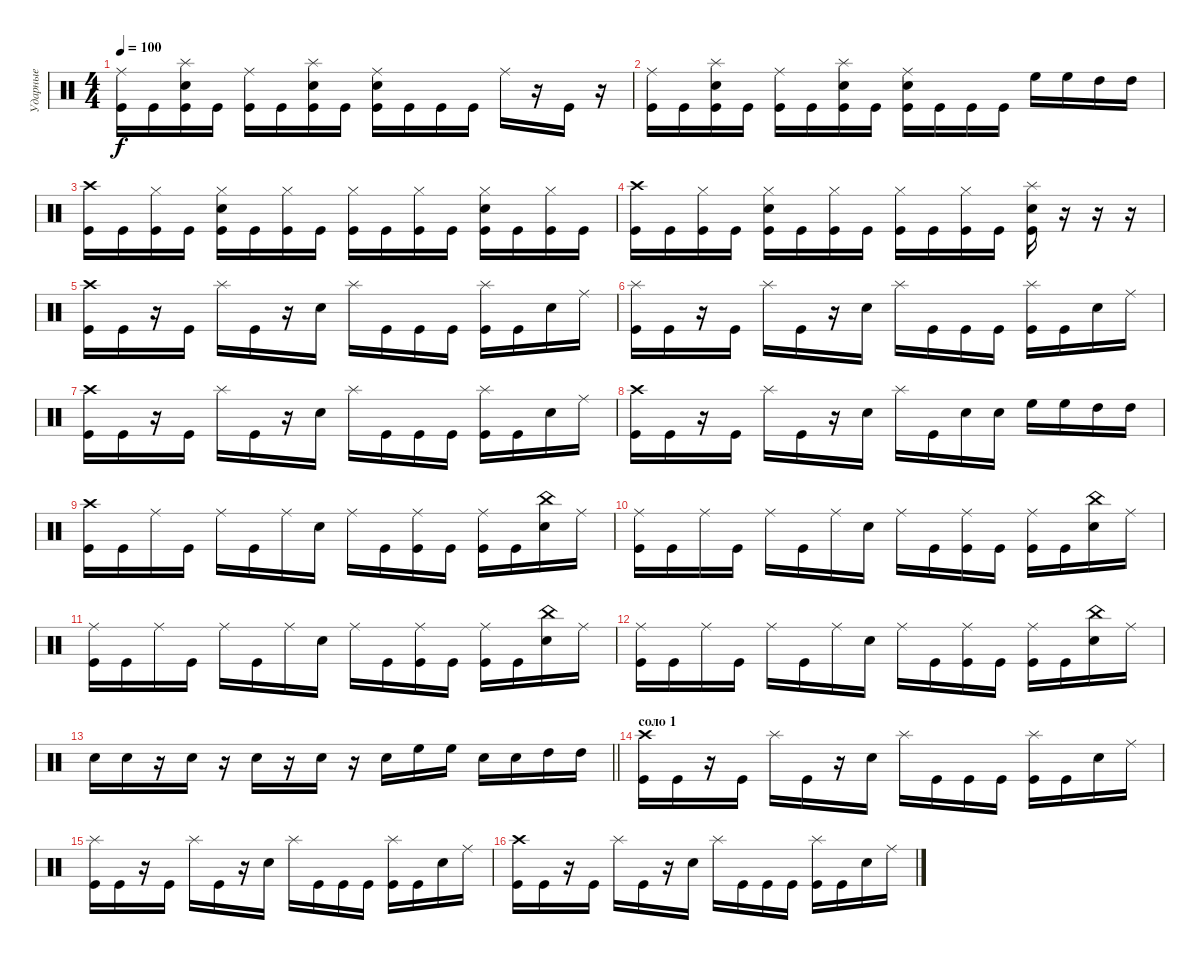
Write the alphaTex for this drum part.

\track ("Ударные" "Ударные") {instrument percussion}
\staff {score}
\articulation defaults
\ts (4 4)
\tempo 100
\clef neutral
\ks c
("Ride (middle)" "Kick (hit)").16{dy f} "Kick (hit)".16 ("Kick (hit)" "Snare (hit) 2" "Splash (hit)").16 "Kick (hit)".16 ("Kick (hit)" "Ride (middle)").16 "Kick (hit)".16 ("Kick (hit)" "Snare (hit) 2" "Splash (hit)").16 "Kick (hit)".16 ("Kick (hit)" "Ride (middle)" "Snare (hit) 2").16 "Kick (hit)".16 "Kick (hit)".16 "Kick (hit)".16 "Ride (middle)".16 r.16 "Kick (hit)".16 r.16 |
("Ride (middle)" "Kick (hit)").16 "Kick (hit)".16 ("Kick (hit)" "Snare (hit) 2" "Splash (hit)").16 "Kick (hit)".16 ("Kick (hit)" "Ride (middle)").16 "Kick (hit)".16 ("Kick (hit)" "Snare (hit) 2" "Splash (hit)").16 "Kick (hit)".16 ("Kick (hit)" "Ride (middle)" "Snare (hit) 2").16 "Kick (hit)".16 "Kick (hit)".16 "Kick (hit)".16 "High Floor Tom (hit)".16 "High Floor Tom (hit)".16 "High Tom (hit)".16 "High Tom (hit)".16 |
("Kick (hit)" "Crash high (hit)").16 "Kick (hit)".16 ("Kick (hit)" "Hi-Hat (closed)").16 "Kick (hit)".16 ("Kick (hit)" "Snare (hit) 2" "Hi-Hat (closed)").16 "Kick (hit)".16 ("Kick (hit)" "Hi-Hat (closed)").16 "Kick (hit)".16 ("Kick (hit)" "Hi-Hat (closed)").16 "Kick (hit)".16 ("Kick (hit)" "Hi-Hat (closed)").16 "Kick (hit)".16 ("Kick (hit)" "Snare (hit) 2" "Hi-Hat (closed)").16 "Kick (hit)".16 ("Kick (hit)" "Hi-Hat (closed)").16 "Kick (hit)".16 |
("Kick (hit)" "Crash high (hit)").16 "Kick (hit)".16 ("Kick (hit)" "Hi-Hat (closed)").16 "Kick (hit)".16 ("Kick (hit)" "Snare (hit) 2" "Hi-Hat (closed)").16 "Kick (hit)".16 ("Kick (hit)" "Hi-Hat (closed)").16 "Kick (hit)".16 ("Kick (hit)" "Hi-Hat (closed)").16 "Kick (hit)".16 ("Kick (hit)" "Hi-Hat (closed)").16 "Kick (hit)".16 ("Kick (hit)" "Snare (hit) 2" "Splash (hit)").16 r.16 r.16 r.16 |
("Kick (hit)" "Crash high (hit)").16 "Kick (hit)".16 r.16 "Kick (hit)".16 "Splash (hit)".16 "Kick (hit)".16 r.16 "Snare (hit) 2".16 "Splash (hit)".16 "Kick (hit)".16 "Kick (hit)".16 "Kick (hit)".16 ("Kick (hit)" "Splash (hit)").16 "Kick (hit)".16 "Snare (hit) 2".16 "Ride (middle)".16 |
("Kick (hit)" "Splash (hit)").16 "Kick (hit)".16 r.16 "Kick (hit)".16 "Splash (hit)".16 "Kick (hit)".16 r.16 "Snare (hit) 2".16 "Splash (hit)".16 "Kick (hit)".16 "Kick (hit)".16 "Kick (hit)".16 ("Kick (hit)" "Splash (hit)").16 "Kick (hit)".16 "Snare (hit) 2".16 "Ride (middle)".16 |
("Kick (hit)" "Crash high (hit)").16 "Kick (hit)".16 r.16 "Kick (hit)".16 "Splash (hit)".16 "Kick (hit)".16 r.16 "Snare (hit) 2".16 "Splash (hit)".16 "Kick (hit)".16 "Kick (hit)".16 "Kick (hit)".16 ("Kick (hit)" "Splash (hit)").16 "Kick (hit)".16 "Snare (hit) 2".16 "Ride (middle)".16 |
("Kick (hit)" "Crash high (hit)").16 "Kick (hit)".16 r.16 "Kick (hit)".16 "Splash (hit)".16 "Kick (hit)".16 r.16 "Snare (hit) 2".16 "Splash (hit)".16 "Kick (hit)".16 "Snare (hit) 2".16 "Snare (hit) 2".16 "High Floor Tom (hit)".16 "High Floor Tom (hit)".16 "High Tom (hit)".16 "High Tom (hit)".16 |
("Kick (hit)" "Crash high (hit)").16 "Kick (hit)".16 "Ride (middle)".16 "Kick (hit)".16 "Ride (middle)".16 "Kick (hit)".16 "Ride (middle)".16 "Snare (hit) 2".16 "Ride (middle)".16 "Kick (hit)".16 ("Kick (hit)" "Ride (middle)").16 "Kick (hit)".16 ("Kick (hit)" "Ride (middle)").16 "Kick (hit)".16 ("Snare (hit) 2" "China (hit)").16 "Ride (middle)".16 |
("Kick (hit)" "Ride (middle)").16 "Kick (hit)".16 "Ride (middle)".16 "Kick (hit)".16 "Ride (middle)".16 "Kick (hit)".16 "Ride (middle)".16 "Snare (hit) 2".16 "Ride (middle)".16 "Kick (hit)".16 ("Kick (hit)" "Ride (middle)").16 "Kick (hit)".16 ("Kick (hit)" "Ride (middle)").16 "Kick (hit)".16 ("Snare (hit) 2" "China (hit)").16 "Ride (middle)".16 |
("Kick (hit)" "Ride (middle)").16 "Kick (hit)".16 "Ride (middle)".16 "Kick (hit)".16 "Ride (middle)".16 "Kick (hit)".16 "Ride (middle)".16 "Snare (hit) 2".16 "Ride (middle)".16 "Kick (hit)".16 ("Kick (hit)" "Ride (middle)").16 "Kick (hit)".16 ("Kick (hit)" "Ride (middle)").16 "Kick (hit)".16 ("Snare (hit) 2" "China (hit)").16 "Ride (middle)".16 |
("Kick (hit)" "Ride (middle)").16 "Kick (hit)".16 "Ride (middle)".16 "Kick (hit)".16 "Ride (middle)".16 "Kick (hit)".16 "Ride (middle)".16 "Snare (hit) 2".16 "Ride (middle)".16 "Kick (hit)".16 ("Kick (hit)" "Ride (middle)").16 "Kick (hit)".16 ("Kick (hit)" "Ride (middle)").16 "Kick (hit)".16 ("Snare (hit) 2" "China (hit)").16 "Ride (middle)".16 |
\barLineRight lightlight "Snare (hit) 2".16 "Snare (hit) 2".16
r.16 "Snare (hit) 2".16 r.16 "Snare (hit) 2".16 r.16 "Snare (hit) 2".16 r.16 "Snare (hit) 2".16 "High Floor Tom (hit)".16 "High Floor Tom (hit)".16 "Snare (hit) 2".16 "Snare (hit) 2".16 "High Tom (hit)".16 "High Tom (hit)".16 |
\section ("" "соло 1")
("Kick (hit)" "Crash high (hit)").16 "Kick (hit)".16 r.16 "Kick (hit)".16 "Splash (hit)".16 "Kick (hit)".16 r.16 "Snare (hit) 2".16 "Splash (hit)".16 "Kick (hit)".16 "Kick (hit)".16 "Kick (hit)".16 ("Kick (hit)" "Splash (hit)").16 "Kick (hit)".16 "Snare (hit) 2".16 "Ride (middle)".16 |
("Kick (hit)" "Splash (hit)").16 "Kick (hit)".16 r.16 "Kick (hit)".16 "Splash (hit)".16 "Kick (hit)".16 r.16 "Snare (hit) 2".16 "Splash (hit)".16 "Kick (hit)".16 "Kick (hit)".16 "Kick (hit)".16 ("Kick (hit)" "Splash (hit)").16 "Kick (hit)".16 "Snare (hit) 2".16 "Ride (middle)".16 |
("Kick (hit)" "Crash high (hit)").16 "Kick (hit)".16 r.16 "Kick (hit)".16 "Splash (hit)".16 "Kick (hit)".16 r.16 "Snare (hit) 2".16 "Splash (hit)".16 "Kick (hit)".16 "Kick (hit)".16 "Kick (hit)".16 ("Kick (hit)" "Splash (hit)").16 "Kick (hit)".16 "Snare (hit) 2".16 "Ride (middle)".16
